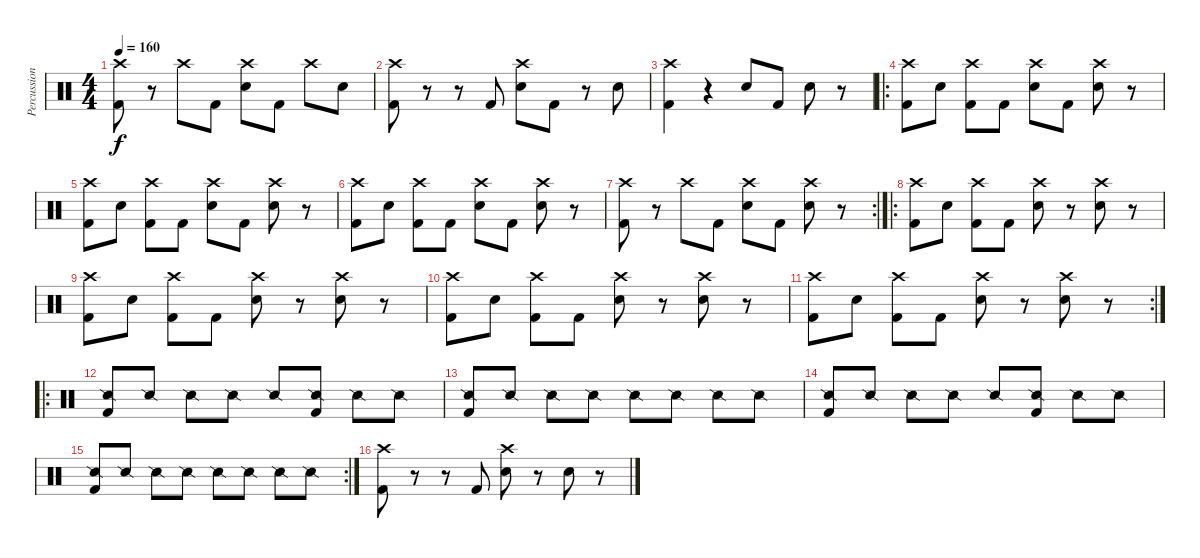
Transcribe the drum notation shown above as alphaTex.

\track ("Percussion" "Percussion") {instrument percussion}
\staff {score}
\articulation defaults
\ts (4 4)
\tempo 160
\clef neutral
\ks c
("Crash high (hit)" "Kick (hit) 2").8{dy f} r.8 "Crash high (hit)".8 "Kick (hit) 2".8 ("Crash high (hit)" "Snare (hit) 2").8 "Kick (hit) 2".8 "Crash high (hit)".8 "Snare (hit) 2".8 |
("Crash high (hit)" "Kick (hit) 2").8 r.8 r.8 "Kick (hit) 2".8 ("Crash high (hit)" "Snare (hit) 2").8 "Kick (hit) 2".8 r.8 "Snare (hit) 2".8 |
("Crash high (hit)" "Kick (hit) 2").4 r.4 "Snare (hit) 2".8 "Kick (hit) 2".8 "Snare (hit) 2".8 r.8 |
\ro
("Crash high (hit)" "Kick (hit) 2").8 "Snare (hit) 2".8 ("Crash high (hit)" "Kick (hit) 2").8 "Kick (hit) 2".8 ("Crash high (hit)" "Snare (hit) 2").8 "Kick (hit) 2".8 ("Crash high (hit)" "Snare (hit) 2").8 r.8 |
("Crash high (hit)" "Kick (hit) 2").8 "Snare (hit) 2".8 ("Crash high (hit)" "Kick (hit) 2").8 "Kick (hit) 2".8 ("Crash high (hit)" "Snare (hit) 2").8 "Kick (hit) 2".8 ("Crash high (hit)" "Snare (hit) 2").8 r.8 |
("Crash high (hit)" "Kick (hit) 2").8 "Snare (hit) 2".8 ("Crash high (hit)" "Kick (hit) 2").8 "Kick (hit) 2".8 ("Crash high (hit)" "Snare (hit) 2").8 "Kick (hit) 2".8 ("Crash high (hit)" "Snare (hit) 2").8 r.8 |
\rc 2
("Crash high (hit)" "Kick (hit) 2").8 r.8 "Crash high (hit)".8 "Kick (hit) 2".8 ("Crash high (hit)" "Snare (hit) 2").8 "Kick (hit) 2".8 ("Crash high (hit)" "Snare (hit) 2").8 r.8 |
\ro
("Crash high (hit)" "Kick (hit) 2").8 "Snare (hit) 2".8 ("Crash high (hit)" "Kick (hit) 2").8 "Kick (hit) 2".8 ("Crash high (hit)" "Snare (hit) 2").8 r.8 ("Crash high (hit)" "Snare (hit) 2").8 r.8 |
("Crash high (hit)" "Kick (hit) 2").8 "Snare (hit) 2".8 ("Crash high (hit)" "Kick (hit) 2").8 "Kick (hit) 2".8 ("Crash high (hit)" "Snare (hit) 2").8 r.8 ("Crash high (hit)" "Snare (hit) 2").8 r.8 |
("Crash high (hit)" "Kick (hit) 2").8 "Snare (hit) 2".8 ("Crash high (hit)" "Kick (hit) 2").8 "Kick (hit) 2".8 ("Crash high (hit)" "Snare (hit) 2").8 r.8 ("Crash high (hit)" "Snare (hit) 2").8 r.8 |
\rc 2
("Crash high (hit)" "Kick (hit) 2").8 "Snare (hit) 2".8 ("Crash high (hit)" "Kick (hit) 2").8 "Kick (hit) 2".8 ("Crash high (hit)" "Snare (hit) 2").8 r.8 ("Crash high (hit)" "Snare (hit) 2").8 r.8 |
\ro
("Snare (side stick) 2" "Kick (hit) 2").8 "Snare (side stick) 2".8 "Snare (side stick) 2".8 "Snare (side stick) 2".8 "Snare (side stick) 2".8 ("Snare (side stick) 2" "Kick (hit) 2").8 "Snare (side stick) 2".8 "Snare (side stick) 2".8 |
("Snare (side stick) 2" "Kick (hit) 2").8 "Snare (side stick) 2".8 "Snare (side stick) 2".8 "Snare (side stick) 2".8 "Snare (side stick) 2".8 "Snare (side stick) 2".8 "Snare (side stick) 2".8 "Snare (side stick) 2".8 |
("Snare (side stick) 2" "Kick (hit) 2").8 "Snare (side stick) 2".8 "Snare (side stick) 2".8 "Snare (side stick) 2".8 "Snare (side stick) 2".8 ("Snare (side stick) 2" "Kick (hit) 2").8 "Snare (side stick) 2".8 "Snare (side stick) 2".8 |
\rc 2
("Snare (side stick) 2" "Kick (hit) 2").8 "Snare (side stick) 2".8 "Snare (side stick) 2".8 "Snare (side stick) 2".8 "Snare (side stick) 2".8 "Snare (side stick) 2".8 "Snare (side stick) 2".8 "Snare (side stick) 2".8 |
("Crash high (hit)" "Kick (hit) 2").8 r.8 r.8 "Kick (hit) 2".8 ("Crash high (hit)" "Snare (hit) 2").8 r.8 "Snare (hit) 2".8 r.8
